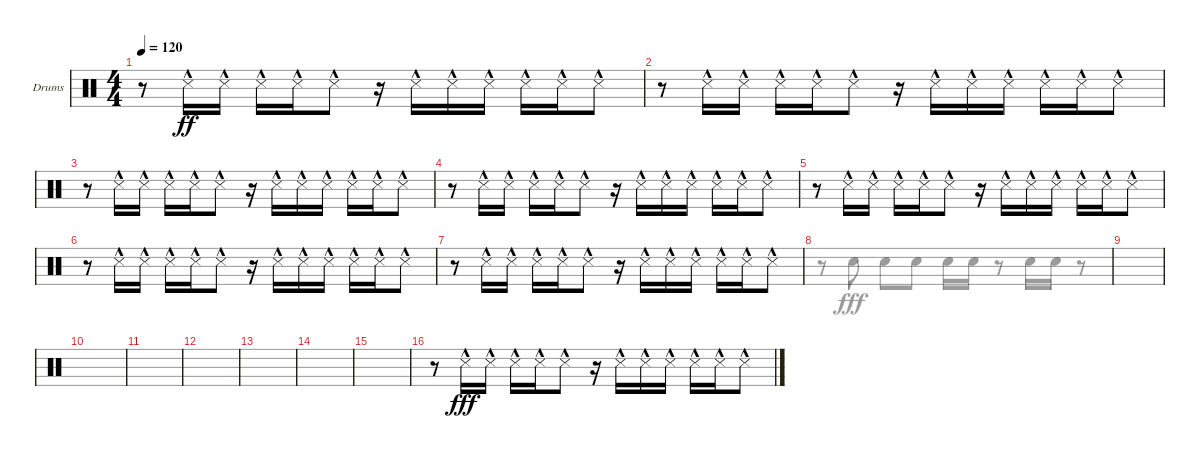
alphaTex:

\defaultSystemsLayout 4
\bracketExtendMode groupsimilarinstruments
\firstSystemTrackNameOrientation horizontal
\otherSystemsTrackNameOrientation horizontal
\track ("Drumkit" "Drums") {instrument percussion}
\staff {score}
\articulation defaults
\voice
\ts (4 4)
\tempo 120
\clef neutral
\scale
0.333333
\ks c
r.8{dy ff} "Snare (side stick) 3"{hac}.16 "Snare (side stick) 3"{hac}.16 "Snare (side stick) 3"{hac}.16 "Snare (side stick) 3"{hac}.16 "Snare (side stick) 3"{hac}.8 r.16 "Snare (side stick) 3"{hac}.16 "Snare (side stick) 3"{hac}.16 "Snare (side stick) 3"{hac}.16 "Snare (side stick) 3"{hac}.16 "Snare (side stick) 3"{hac}.16 "Snare (side stick) 3"{hac}.8 |
\scale
0.333333 r.8 "Snare (side stick) 3"{hac}.16 "Snare (side stick) 3"{hac}.16 "Snare (side stick) 3"{hac}.16 "Snare (side stick) 3"{hac}.16 "Snare (side stick) 3"{hac}.8 r.16 "Snare (side stick) 3"{hac}.16 "Snare (side stick) 3"{hac}.16 "Snare (side stick) 3"{hac}.16 "Snare (side stick) 3"{hac}.16 "Snare (side stick) 3"{hac}.16 "Snare (side stick) 3"{hac}.8 |
\scale
0.333333 r.8 "Snare (side stick) 3"{hac}.16 "Snare (side stick) 3"{hac}.16 "Snare (side stick) 3"{hac}.16 "Snare (side stick) 3"{hac}.16 "Snare (side stick) 3"{hac}.8 r.16 "Snare (side stick) 3"{hac}.16 "Snare (side stick) 3"{hac}.16 "Snare (side stick) 3"{hac}.16 "Snare (side stick) 3"{hac}.16 "Snare (side stick) 3"{hac}.16 "Snare (side stick) 3"{hac}.8 |
\scale
0.333333 r.8 "Snare (side stick) 3"{hac}.16 "Snare (side stick) 3"{hac}.16 "Snare (side stick) 3"{hac}.16 "Snare (side stick) 3"{hac}.16 "Snare (side stick) 3"{hac}.8 r.16 "Snare (side stick) 3"{hac}.16 "Snare (side stick) 3"{hac}.16 "Snare (side stick) 3"{hac}.16 "Snare (side stick) 3"{hac}.16 "Snare (side stick) 3"{hac}.16 "Snare (side stick) 3"{hac}.8 |
\scale
0.333333 r.8 "Snare (side stick) 3"{hac}.16 "Snare (side stick) 3"{hac}.16 "Snare (side stick) 3"{hac}.16 "Snare (side stick) 3"{hac}.16 "Snare (side stick) 3"{hac}.8 r.16 "Snare (side stick) 3"{hac}.16 "Snare (side stick) 3"{hac}.16 "Snare (side stick) 3"{hac}.16 "Snare (side stick) 3"{hac}.16 "Snare (side stick) 3"{hac}.16 "Snare (side stick) 3"{hac}.8 |
\scale
0.333333 r.8 "Snare (side stick) 3"{hac}.16 "Snare (side stick) 3"{hac}.16 "Snare (side stick) 3"{hac}.16 "Snare (side stick) 3"{hac}.16 "Snare (side stick) 3"{hac}.8 r.16 "Snare (side stick) 3"{hac}.16 "Snare (side stick) 3"{hac}.16 "Snare (side stick) 3"{hac}.16 "Snare (side stick) 3"{hac}.16 "Snare (side stick) 3"{hac}.16 "Snare (side stick) 3"{hac}.8 |
\scale
0.333333 r.8 "Snare (side stick) 3"{hac}.16 "Snare (side stick) 3"{hac}.16 "Snare (side stick) 3"{hac}.16 "Snare (side stick) 3"{hac}.16 "Snare (side stick) 3"{hac}.8 r.16 "Snare (side stick) 3"{hac}.16 "Snare (side stick) 3"{hac}.16 "Snare (side stick) 3"{hac}.16 "Snare (side stick) 3"{hac}.16 "Snare (side stick) 3"{hac}.16 "Snare (side stick) 3"{hac}.8 |
\scale
0.333333 |
\scale
0.333333 |
\scale
0.333333 |
\scale
0.333333 |
\scale
0.333333 |
\scale
0.333333 |
\scale
0.333333 |
\scale
0.333333 |
\scale
0.333333 r.8 "Snare (side stick) 3"{hac}.16{dy fff} "Snare (side stick) 3"{hac}.16 "Snare (side stick) 3"{hac}.16 "Snare (side stick) 3"{hac}.16 "Snare (side stick) 3"{hac}.8 r.16 "Snare (side stick) 3"{hac}.16 "Snare (side stick) 3"{hac}.16 "Snare (side stick) 3"{hac}.16 "Snare (side stick) 3"{hac}.16 "Snare (side stick) 3"{hac}.16 "Snare (side stick) 3"{hac}.8
\voice
\clef neutral
\ottava regular
\simile none
\scale
0.333333
\ks c
|
\scale
0.333333 |
\scale
0.333333 |
\scale
0.333333 |
\scale
0.333333 |
\scale
0.333333 |
\scale
0.333333 |
\scale
0.333333 r.8 "Snare (hit) 2".8 "Snare (hit) 2".8 "Snare (hit) 2".8 "Snare (hit) 2".16 "Snare (hit) 2".16 r.8 "Snare (hit) 2".16 "Snare (hit) 2".16 r.8 |
\scale
0.333333 |
\scale
0.333333 |
\scale
0.333333 |
\scale
0.333333 |
\scale
0.333333 |
\scale
0.333333 |
\scale
0.333333 |
\scale
0.333333
